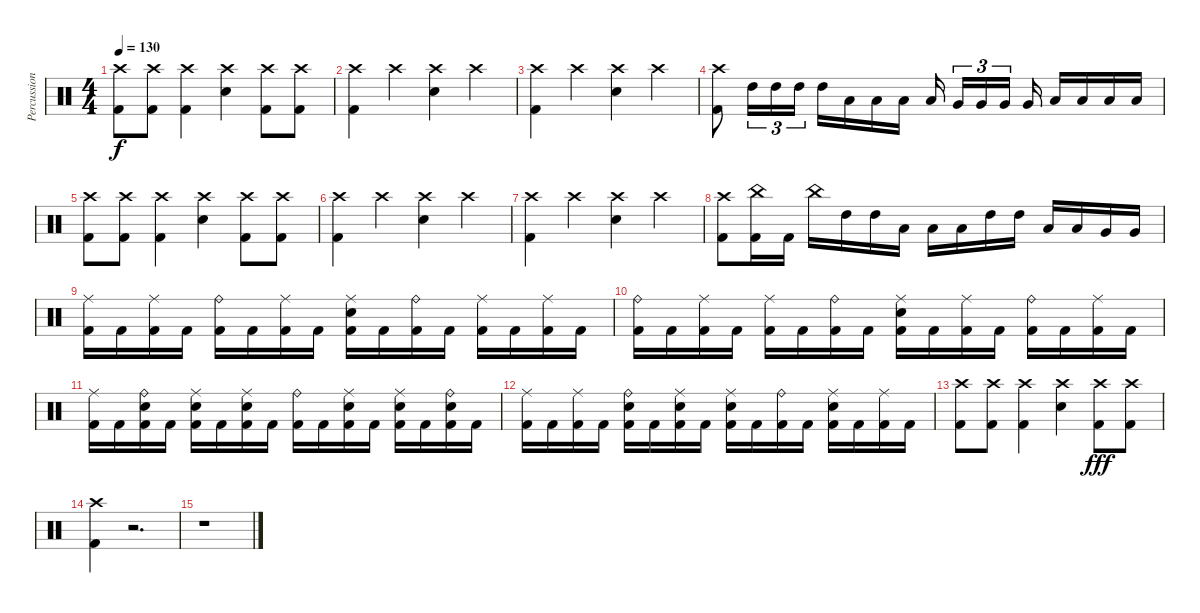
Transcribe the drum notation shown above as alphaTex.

\track ("Percussion" "Percussion") {instrument percussion}
\staff {score}
\articulation defaults
\ts (4 4)
\tempo 130
\clef neutral
\ks c
("Crash high (hit)" "Kick (hit) 2").8{dy f} ("Crash high (hit)" "Kick (hit) 2").8 ("Crash high (hit)" "Kick (hit) 2").4 ("Crash high (hit)" "Electric Snare (hit)").4 ("Crash high (hit)" "Kick (hit) 2").8 ("Crash high (hit)" "Kick (hit) 2").8 |
("Crash high (hit)" "Kick (hit) 2").4 "Crash high (hit)".4 ("Crash high (hit)" "Electric Snare (hit)").4 "Crash high (hit)".4 |
("Crash high (hit)" "Kick (hit) 2").4 "Crash high (hit)".4 ("Crash high (hit)" "Electric Snare (hit)").4 "Crash high (hit)".4 |
("Crash high (hit)" "Kick (hit) 2").8 "High Tom (hit)".16{tu (3 2)} "High Tom (hit)".16{tu (3 2)} "High Tom (hit)".16{tu (3 2)} "High Tom (hit)".16 "Low Tom (hit)".16 "Low Tom (hit)".16 "Low Tom (hit)".16 "Low Tom (hit)".16 "Very Low Tom (hit)".16{tu (3 2)} "Very Low Tom (hit)".16{tu (3 2)} "Very Low Tom (hit)".16{tu (3 2)} "Very Low Tom (hit)".16 "Low Floor Tom (hit)".16 "Low Floor Tom (hit)".16 "Low Floor Tom (hit)".16 "Low Floor Tom (hit)".16 |
("Crash high (hit)" "Kick (hit) 2").8 ("Crash high (hit)" "Kick (hit) 2").8 ("Crash high (hit)" "Kick (hit) 2").4 ("Crash high (hit)" "Electric Snare (hit)").4 ("Crash high (hit)" "Kick (hit) 2").8 ("Crash high (hit)" "Kick (hit) 2").8 |
("Crash high (hit)" "Kick (hit) 2").4 "Crash high (hit)".4 ("Crash high (hit)" "Electric Snare (hit)").4 "Crash high (hit)".4 |
("Crash high (hit)" "Kick (hit) 2").4 "Crash high (hit)".4 ("Crash high (hit)" "Electric Snare (hit)").4 "Crash high (hit)".4 |
("Crash high (hit)" "Kick (hit) 2").8 ("China (hit)" "Kick (hit) 2").16 "Kick (hit) 2".16 "China (hit)".16 "High Tom (hit)".16 "High Tom (hit)".16 "Low Tom (hit)".16 "Low Tom (hit)".16 "Low Tom (hit)".16 "High Tom (hit)".16 "High Tom (hit)".16 "Low Tom (hit)".16 "Low Tom (hit)".16 "Very Low Tom (hit)".16 "Very Low Tom (hit)".16 |
("Ride (middle)" "Kick (hit) 2").16 "Kick (hit) 2".16 ("Ride (middle)" "Kick (hit) 2").16 "Kick (hit) 2".16 ("Ride (bell)" "Kick (hit) 2").16 "Kick (hit) 2".16 ("Ride (middle)" "Kick (hit) 2").16 "Kick (hit) 2".16 ("Ride (middle)" "Electric Snare (hit)" "Kick (hit) 2").16 "Kick (hit) 2".16 ("Ride (bell)" "Kick (hit) 2").16 "Kick (hit) 2".16 ("Ride (middle)" "Kick (hit) 2").16 "Kick (hit) 2".16 ("Ride (middle)" "Kick (hit) 2").16 "Kick (hit) 2".16 |
("Ride (bell)" "Kick (hit) 2").16 "Kick (hit) 2".16 ("Ride (middle)" "Kick (hit) 2").16 "Kick (hit) 2".16 ("Ride (middle)" "Kick (hit) 2").16 "Kick (hit) 2".16 ("Ride (bell)" "Kick (hit) 2").16 "Kick (hit) 2".16 ("Ride (middle)" "Electric Snare (hit)" "Kick (hit) 2").16 "Kick (hit) 2".16 ("Ride (middle)" "Kick (hit) 2").16 "Kick (hit) 2".16 ("Ride (bell)" "Kick (hit) 2").16 "Kick (hit) 2".16 ("Ride (middle)" "Kick (hit) 2").16 "Kick (hit) 2".16 |
("Ride (middle)" "Kick (hit) 2").16 "Kick (hit) 2".16 ("Ride (bell)" "Electric Snare (hit)" "Kick (hit) 2").16 "Kick (hit) 2".16 ("Ride (middle)" "Electric Snare (hit)" "Kick (hit) 2").16 "Kick (hit) 2".16 ("Ride (middle)" "Electric Snare (hit)" "Kick (hit) 2").16 "Kick (hit) 2".16 ("Ride (bell)" "Kick (hit) 2").16 "Kick (hit) 2".16 ("Ride (middle)" "Electric Snare (hit)" "Kick (hit) 2").16 "Kick (hit) 2".16 ("Ride (middle)" "Electric Snare (hit)" "Kick (hit) 2").16 "Kick (hit) 2".16 ("Ride (bell)" "Electric Snare (hit)" "Kick (hit) 2").16 "Kick (hit) 2".16 |
("Ride (middle)" "Kick (hit) 2").16 "Kick (hit) 2".16 ("Ride (middle)" "Kick (hit) 2").16 "Kick (hit) 2".16 ("Ride (bell)" "Electric Snare (hit)" "Kick (hit) 2").16 "Kick (hit) 2".16 ("Ride (middle)" "Electric Snare (hit)" "Kick (hit) 2").16 "Kick (hit) 2".16 ("Ride (middle)" "Electric Snare (hit)" "Kick (hit) 2").16 "Kick (hit) 2".16 ("Ride (bell)" "Kick (hit) 2").16 "Kick (hit) 2".16 ("Ride (middle)" "Electric Snare (hit)" "Kick (hit) 2").16 "Kick (hit) 2".16 ("Ride (middle)" "Kick (hit) 2").16 "Kick (hit) 2".16 |
("Crash high (hit)" "Kick (hit) 2").8 ("Crash high (hit)" "Kick (hit) 2").8 ("Crash high (hit)" "Kick (hit) 2").4 ("Crash high (hit)" "Electric Snare (hit)").4 ("Crash high (hit)" "Kick (hit) 2").8{dy fff} ("Crash high (hit)" "Kick (hit) 2").8 |
("Crash high (hit)" "Kick (hit) 2").4 r.2{d} |
r.1
